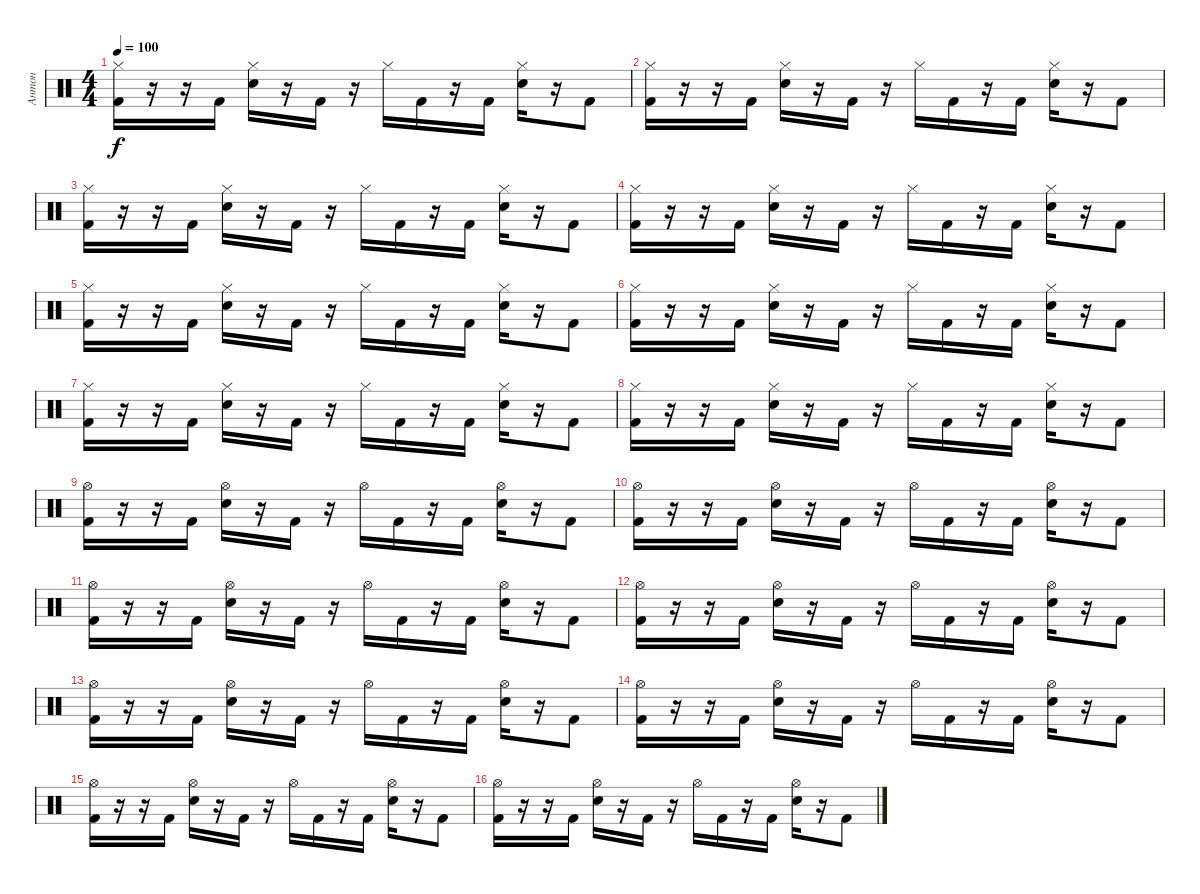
\track ("Антон" "Антон") {instrument percussion}
\staff {score}
\articulation defaults
\ts (4 4)
\tempo 100
\clef neutral
\ks c
("Hi-Hat (closed)" "Kick (hit) 2").16{dy f} r.16 r.16 "Kick (hit) 2".16 ("Hi-Hat (closed)" "Electric Snare (hit)").16 r.16 "Kick (hit) 2".16 r.16 "Hi-Hat (closed)".16 "Kick (hit) 2".16 r.16 "Kick (hit) 2".16 ("Hi-Hat (closed)" "Electric Snare (hit)").16 r.16 "Kick (hit) 2".8 |
("Hi-Hat (closed)" "Kick (hit) 2").16 r.16 r.16 "Kick (hit) 2".16 ("Hi-Hat (closed)" "Electric Snare (hit)").16 r.16 "Kick (hit) 2".16 r.16 "Hi-Hat (closed)".16 "Kick (hit) 2".16 r.16 "Kick (hit) 2".16 ("Hi-Hat (closed)" "Electric Snare (hit)").16 r.16 "Kick (hit) 2".8 |
("Hi-Hat (closed)" "Kick (hit) 2").16 r.16 r.16 "Kick (hit) 2".16 ("Hi-Hat (closed)" "Electric Snare (hit)").16 r.16 "Kick (hit) 2".16 r.16 "Hi-Hat (closed)".16 "Kick (hit) 2".16 r.16 "Kick (hit) 2".16 ("Hi-Hat (closed)" "Electric Snare (hit)").16 r.16 "Kick (hit) 2".8 |
("Hi-Hat (closed)" "Kick (hit) 2").16 r.16 r.16 "Kick (hit) 2".16 ("Hi-Hat (closed)" "Electric Snare (hit)").16 r.16 "Kick (hit) 2".16 r.16 "Hi-Hat (closed)".16 "Kick (hit) 2".16 r.16 "Kick (hit) 2".16 ("Hi-Hat (closed)" "Electric Snare (hit)").16 r.16 "Kick (hit) 2".8 |
("Hi-Hat (closed)" "Kick (hit) 2").16 r.16 r.16 "Kick (hit) 2".16 ("Hi-Hat (closed)" "Electric Snare (hit)").16 r.16 "Kick (hit) 2".16 r.16 "Hi-Hat (closed)".16 "Kick (hit) 2".16 r.16 "Kick (hit) 2".16 ("Hi-Hat (closed)" "Electric Snare (hit)").16 r.16 "Kick (hit) 2".8 |
("Hi-Hat (closed)" "Kick (hit) 2").16 r.16 r.16 "Kick (hit) 2".16 ("Hi-Hat (closed)" "Electric Snare (hit)").16 r.16 "Kick (hit) 2".16 r.16 "Hi-Hat (closed)".16 "Kick (hit) 2".16 r.16 "Kick (hit) 2".16 ("Hi-Hat (closed)" "Electric Snare (hit)").16 r.16 "Kick (hit) 2".8 |
("Hi-Hat (closed)" "Kick (hit) 2").16 r.16 r.16 "Kick (hit) 2".16 ("Hi-Hat (closed)" "Electric Snare (hit)").16 r.16 "Kick (hit) 2".16 r.16 "Hi-Hat (closed)".16 "Kick (hit) 2".16 r.16 "Kick (hit) 2".16 ("Hi-Hat (closed)" "Electric Snare (hit)").16 r.16 "Kick (hit) 2".8 |
("Hi-Hat (closed)" "Kick (hit) 2").16 r.16 r.16 "Kick (hit) 2".16 ("Hi-Hat (closed)" "Electric Snare (hit)").16 r.16 "Kick (hit) 2".16 r.16 "Hi-Hat (closed)".16 "Kick (hit) 2".16 r.16 "Kick (hit) 2".16 ("Hi-Hat (closed)" "Electric Snare (hit)").16 r.16 "Kick (hit) 2".8 |
("Hi-Hat (open)" "Kick (hit) 2").16 r.16 r.16 "Kick (hit) 2".16 ("Hi-Hat (open)" "Electric Snare (hit)").16 r.16 "Kick (hit) 2".16 r.16 "Hi-Hat (open)".16 "Kick (hit) 2".16 r.16 "Kick (hit) 2".16 ("Hi-Hat (open)" "Electric Snare (hit)").16 r.16 "Kick (hit) 2".8 |
("Hi-Hat (open)" "Kick (hit) 2").16 r.16 r.16 "Kick (hit) 2".16 ("Hi-Hat (open)" "Electric Snare (hit)").16 r.16 "Kick (hit) 2".16 r.16 "Hi-Hat (open)".16 "Kick (hit) 2".16 r.16 "Kick (hit) 2".16 ("Hi-Hat (open)" "Electric Snare (hit)").16 r.16 "Kick (hit) 2".8 |
("Hi-Hat (open)" "Kick (hit) 2").16 r.16 r.16 "Kick (hit) 2".16 ("Hi-Hat (open)" "Electric Snare (hit)").16 r.16 "Kick (hit) 2".16 r.16 "Hi-Hat (open)".16 "Kick (hit) 2".16 r.16 "Kick (hit) 2".16 ("Hi-Hat (open)" "Electric Snare (hit)").16 r.16 "Kick (hit) 2".8 |
("Hi-Hat (open)" "Kick (hit) 2").16 r.16 r.16 "Kick (hit) 2".16 ("Hi-Hat (open)" "Electric Snare (hit)").16 r.16 "Kick (hit) 2".16 r.16 "Hi-Hat (open)".16 "Kick (hit) 2".16 r.16 "Kick (hit) 2".16 ("Hi-Hat (open)" "Electric Snare (hit)").16 r.16 "Kick (hit) 2".8 |
("Hi-Hat (open)" "Kick (hit) 2").16 r.16 r.16 "Kick (hit) 2".16 ("Hi-Hat (open)" "Electric Snare (hit)").16 r.16 "Kick (hit) 2".16 r.16 "Hi-Hat (open)".16 "Kick (hit) 2".16 r.16 "Kick (hit) 2".16 ("Hi-Hat (open)" "Electric Snare (hit)").16 r.16 "Kick (hit) 2".8 |
("Hi-Hat (open)" "Kick (hit) 2").16 r.16 r.16 "Kick (hit) 2".16 ("Hi-Hat (open)" "Electric Snare (hit)").16 r.16 "Kick (hit) 2".16 r.16 "Hi-Hat (open)".16 "Kick (hit) 2".16 r.16 "Kick (hit) 2".16 ("Hi-Hat (open)" "Electric Snare (hit)").16 r.16 "Kick (hit) 2".8 |
("Hi-Hat (open)" "Kick (hit) 2").16 r.16 r.16 "Kick (hit) 2".16 ("Hi-Hat (open)" "Electric Snare (hit)").16 r.16 "Kick (hit) 2".16 r.16 "Hi-Hat (open)".16 "Kick (hit) 2".16 r.16 "Kick (hit) 2".16 ("Hi-Hat (open)" "Electric Snare (hit)").16 r.16 "Kick (hit) 2".8 |
("Hi-Hat (open)" "Kick (hit) 2").16 r.16 r.16 "Kick (hit) 2".16 ("Hi-Hat (open)" "Electric Snare (hit)").16 r.16 "Kick (hit) 2".16 r.16 "Hi-Hat (open)".16 "Kick (hit) 2".16 r.16 "Kick (hit) 2".16 ("Hi-Hat (open)" "Electric Snare (hit)").16 r.16 "Kick (hit) 2".8
